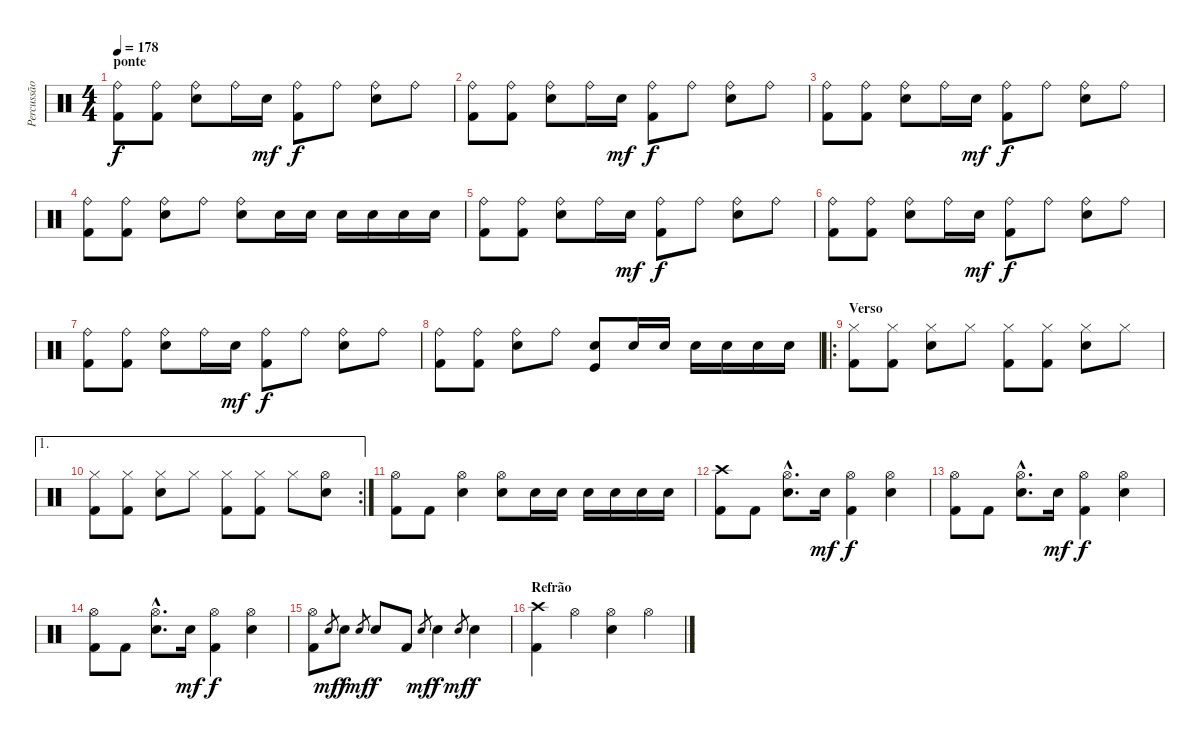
\track ("Percussão" "Percussão") {instrument percussion}
\staff {score}
\articulation defaults
\ts (4 4)
\section ("" "ponte")
\tempo 178
\clef neutral
\ks c
("Ride (bell)" "Kick (hit) 2").8{dy f} ("Ride (bell)" "Kick (hit) 2").8 ("Ride (bell)" "Snare (hit) 2").8 "Ride (bell)".16 "Snare (hit) 2".16{dy mf} ("Ride (bell)" "Kick (hit) 2").8{dy f} "Ride (bell)".8 ("Ride (bell)" "Snare (hit) 2").8 "Ride (bell)".8 |
("Ride (bell)" "Kick (hit) 2").8 ("Ride (bell)" "Kick (hit) 2").8 ("Ride (bell)" "Snare (hit) 2").8 "Ride (bell)".16 "Snare (hit) 2".16{dy mf} ("Ride (bell)" "Kick (hit) 2").8{dy f} "Ride (bell)".8 ("Ride (bell)" "Snare (hit) 2").8 "Ride (bell)".8 |
("Ride (bell)" "Kick (hit) 2").8 ("Ride (bell)" "Kick (hit) 2").8 ("Ride (bell)" "Snare (hit) 2").8 "Ride (bell)".16 "Snare (hit) 2".16{dy mf} ("Ride (bell)" "Kick (hit) 2").8{dy f} "Ride (bell)".8 ("Ride (bell)" "Snare (hit) 2").8 "Ride (bell)".8 |
("Ride (bell)" "Kick (hit) 2").8 ("Ride (bell)" "Kick (hit) 2").8 ("Ride (bell)" "Snare (hit) 2").8 "Ride (bell)".8 ("Ride (bell)" "Snare (hit) 2").8 "Snare (hit) 2".16 "Snare (hit) 2".16 "Snare (hit) 2".16 "Snare (hit) 2".16 "Snare (hit) 2".16 "Snare (hit) 2".16 |
("Ride (bell)" "Kick (hit) 2").8 ("Ride (bell)" "Kick (hit) 2").8 ("Ride (bell)" "Snare (hit) 2").8 "Ride (bell)".16 "Snare (hit) 2".16{dy mf} ("Ride (bell)" "Kick (hit) 2").8{dy f} "Ride (bell)".8 ("Ride (bell)" "Snare (hit) 2").8 "Ride (bell)".8 |
("Ride (bell)" "Kick (hit) 2").8 ("Ride (bell)" "Kick (hit) 2").8 ("Ride (bell)" "Snare (hit) 2").8 "Ride (bell)".16 "Snare (hit) 2".16{dy mf} ("Ride (bell)" "Kick (hit) 2").8{dy f} "Ride (bell)".8 ("Ride (bell)" "Snare (hit) 2").8 "Ride (bell)".8 |
("Ride (bell)" "Kick (hit) 2").8 ("Ride (bell)" "Kick (hit) 2").8 ("Ride (bell)" "Snare (hit) 2").8 "Ride (bell)".16 "Snare (hit) 2".16{dy mf} ("Ride (bell)" "Kick (hit) 2").8{dy f} "Ride (bell)".8 ("Ride (bell)" "Snare (hit) 2").8 "Ride (bell)".8 |
("Ride (bell)" "Kick (hit) 2").8 ("Ride (bell)" "Kick (hit) 2").8 ("Ride (bell)" "Snare (hit) 2").8 "Ride (bell)".8 ("Kick (hit)" "Snare (hit) 2").8 "Snare (hit) 2".16 "Snare (hit) 2".16 "Snare (hit) 2".16 "Snare (hit) 2".16 "Snare (hit) 2".16 "Snare (hit) 2".16 |
\ro
\section ("" "Verso")
("Hi-Hat (closed)" "Kick (hit) 2").8 ("Hi-Hat (closed)" "Kick (hit) 2").8 ("Hi-Hat (closed)" "Snare (hit) 2").8 "Hi-Hat (closed)".8 ("Hi-Hat (closed)" "Kick (hit) 2").8 ("Hi-Hat (closed)" "Kick (hit) 2").8 ("Hi-Hat (closed)" "Snare (hit) 2").8 "Hi-Hat (closed)".8 |
\ae 1
\rc 2
("Hi-Hat (closed)" "Kick (hit) 2").8 ("Hi-Hat (closed)" "Kick (hit) 2").8 ("Hi-Hat (closed)" "Snare (hit) 2").8 "Hi-Hat (closed)".8 ("Hi-Hat (closed)" "Kick (hit) 2").8 ("Hi-Hat (closed)" "Kick (hit) 2").8 "Hi-Hat (closed)".8 ("Hi-Hat (open)" "Snare (hit) 2").8 |
("Hi-Hat (open)" "Kick (hit) 2").8 "Kick (hit) 2".8 ("Hi-Hat (open)" "Snare (hit) 2").4 ("Hi-Hat (open)" "Snare (hit) 2").8 "Snare (hit) 2".16 "Snare (hit) 2".16 "Snare (hit) 2".16 "Snare (hit) 2".16 "Snare (hit) 2".16 "Snare (hit) 2".16 |
("Crash high (hit)" "Kick (hit) 2").8 "Kick (hit) 2".8 ("Hi-Hat (open)"{hac} "Snare (hit) 2"{hac}).8{d} "Snare (hit) 2".16{dy mf} ("Hi-Hat (open)" "Kick (hit) 2").4{dy f} ("Hi-Hat (open)" "Snare (hit) 2").4 |
("Hi-Hat (open)" "Kick (hit) 2").8 "Kick (hit) 2".8 ("Hi-Hat (open)"{hac} "Snare (hit) 2"{hac}).8{d} "Snare (hit) 2".16{dy mf} ("Hi-Hat (open)" "Kick (hit) 2").4{dy f} ("Hi-Hat (open)" "Snare (hit) 2").4 |
("Hi-Hat (open)" "Kick (hit) 2").8 "Kick (hit) 2".8 ("Hi-Hat (open)"{hac} "Snare (hit) 2"{hac}).8{d} "Snare (hit) 2".16{dy mf} ("Hi-Hat (open)" "Kick (hit) 2").4{dy f} ("Hi-Hat (open)" "Snare (hit) 2").4 |
("Hi-Hat (open)" "Kick (hit) 2").8 "Snare (hit) 2".8{gr dy mf} "Snare (hit) 2".8{dy f} "Snare (hit) 2".8{gr dy mf} "Snare (hit) 2".8{dy f} "Kick (hit) 2".8 "Snare (hit) 2".8{gr dy mf} "Snare (hit) 2".4{dy f} "Snare (hit) 2".8{gr dy mf} "Snare (hit) 2".4{dy f} |
\section ("" "Refrão")
("Crash high (hit)" "Kick (hit) 2").4 "Hi-Hat (open)".4 ("Hi-Hat (open)" "Snare (hit) 2").4 "Hi-Hat (open)".4
